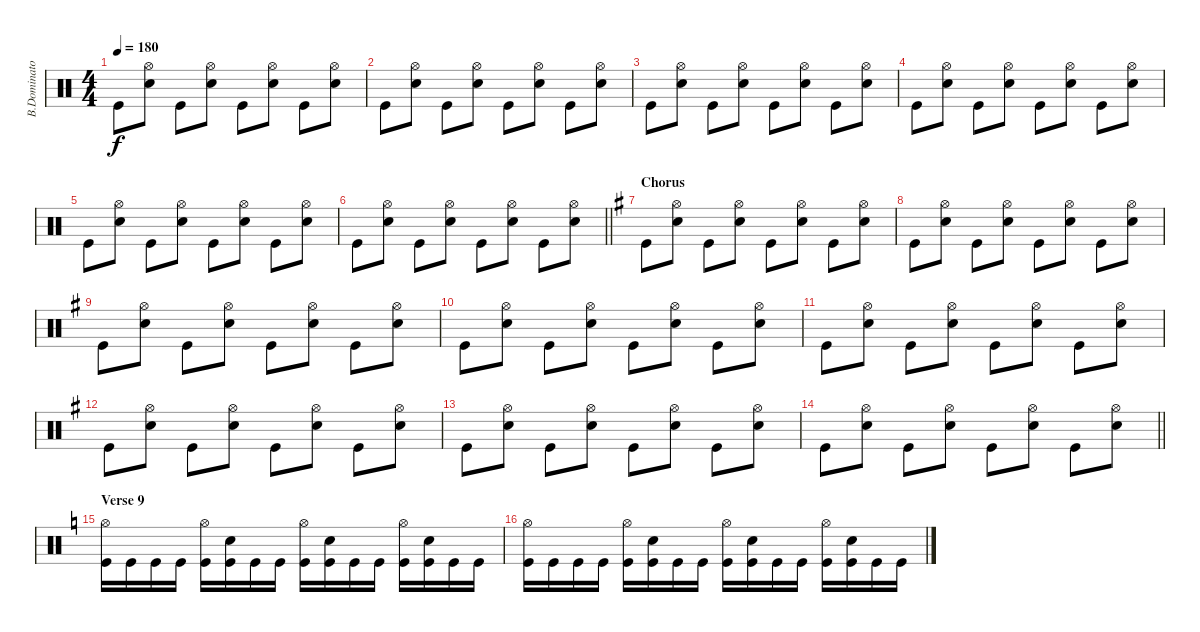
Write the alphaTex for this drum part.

\track ("B.Dominator" "B.Dominato") {instrument percussion}
\staff {score}
\articulation defaults
\ts (4 4)
\tempo 180
\clef neutral
\ks c "Kick (hit)".8{dy f}
("Hi-Hat (open)" "Snare (hit) 2").8 "Kick (hit)".8 ("Hi-Hat (open)" "Snare (hit) 2").8 "Kick (hit)".8 ("Hi-Hat (open)" "Snare (hit) 2").8 "Kick (hit)".8 ("Hi-Hat (open)" "Snare (hit) 2").8 |
"Kick (hit)".8 ("Hi-Hat (open)" "Snare (hit) 2").8 "Kick (hit)".8 ("Hi-Hat (open)" "Snare (hit) 2").8 "Kick (hit)".8 ("Hi-Hat (open)" "Snare (hit) 2").8 "Kick (hit)".8 ("Hi-Hat (open)" "Snare (hit) 2").8 |
"Kick (hit)".8 ("Hi-Hat (open)" "Snare (hit) 2").8 "Kick (hit)".8 ("Hi-Hat (open)" "Snare (hit) 2").8 "Kick (hit)".8 ("Hi-Hat (open)" "Snare (hit) 2").8 "Kick (hit)".8 ("Hi-Hat (open)" "Snare (hit) 2").8 |
"Kick (hit)".8 ("Hi-Hat (open)" "Snare (hit) 2").8 "Kick (hit)".8 ("Hi-Hat (open)" "Snare (hit) 2").8 "Kick (hit)".8 ("Hi-Hat (open)" "Snare (hit) 2").8 "Kick (hit)".8 ("Hi-Hat (open)" "Snare (hit) 2").8 |
"Kick (hit)".8 ("Hi-Hat (open)" "Snare (hit) 2").8 "Kick (hit)".8 ("Hi-Hat (open)" "Snare (hit) 2").8 "Kick (hit)".8 ("Hi-Hat (open)" "Snare (hit) 2").8 "Kick (hit)".8 ("Hi-Hat (open)" "Snare (hit) 2").8 |
\barLineRight lightlight "Kick (hit)".8
("Hi-Hat (open)" "Snare (hit) 2").8 "Kick (hit)".8 ("Hi-Hat (open)" "Snare (hit) 2").8 "Kick (hit)".8 ("Hi-Hat (open)" "Snare (hit) 2").8 "Kick (hit)".8 ("Hi-Hat (open)" "Snare (hit) 2").8 |
\section ("" "Chorus")
\ks g "Kick (hit)".8
("Hi-Hat (open)" "Snare (hit) 2").8 "Kick (hit)".8 ("Hi-Hat (open)" "Snare (hit) 2").8 "Kick (hit)".8 ("Hi-Hat (open)" "Snare (hit) 2").8 "Kick (hit)".8 ("Hi-Hat (open)" "Snare (hit) 2").8 |
"Kick (hit)".8 ("Hi-Hat (open)" "Snare (hit) 2").8 "Kick (hit)".8 ("Hi-Hat (open)" "Snare (hit) 2").8 "Kick (hit)".8 ("Hi-Hat (open)" "Snare (hit) 2").8 "Kick (hit)".8 ("Hi-Hat (open)" "Snare (hit) 2").8 |
"Kick (hit)".8 ("Hi-Hat (open)" "Snare (hit) 2").8 "Kick (hit)".8 ("Hi-Hat (open)" "Snare (hit) 2").8 "Kick (hit)".8 ("Hi-Hat (open)" "Snare (hit) 2").8 "Kick (hit)".8 ("Hi-Hat (open)" "Snare (hit) 2").8 |
"Kick (hit)".8 ("Hi-Hat (open)" "Snare (hit) 2").8 "Kick (hit)".8 ("Hi-Hat (open)" "Snare (hit) 2").8 "Kick (hit)".8 ("Hi-Hat (open)" "Snare (hit) 2").8 "Kick (hit)".8 ("Hi-Hat (open)" "Snare (hit) 2").8 |
"Kick (hit)".8 ("Hi-Hat (open)" "Snare (hit) 2").8 "Kick (hit)".8 ("Hi-Hat (open)" "Snare (hit) 2").8 "Kick (hit)".8 ("Hi-Hat (open)" "Snare (hit) 2").8 "Kick (hit)".8 ("Hi-Hat (open)" "Snare (hit) 2").8 |
"Kick (hit)".8 ("Hi-Hat (open)" "Snare (hit) 2").8 "Kick (hit)".8 ("Hi-Hat (open)" "Snare (hit) 2").8 "Kick (hit)".8 ("Hi-Hat (open)" "Snare (hit) 2").8 "Kick (hit)".8 ("Hi-Hat (open)" "Snare (hit) 2").8 |
"Kick (hit)".8 ("Hi-Hat (open)" "Snare (hit) 2").8 "Kick (hit)".8 ("Hi-Hat (open)" "Snare (hit) 2").8 "Kick (hit)".8 ("Hi-Hat (open)" "Snare (hit) 2").8 "Kick (hit)".8 ("Hi-Hat (open)" "Snare (hit) 2").8 |
\barLineRight lightlight "Kick (hit)".8
("Hi-Hat (open)" "Snare (hit) 2").8 "Kick (hit)".8 ("Hi-Hat (open)" "Snare (hit) 2").8 "Kick (hit)".8 ("Hi-Hat (open)" "Snare (hit) 2").8 "Kick (hit)".8 ("Hi-Hat (open)" "Snare (hit) 2").8 |
\section ("" "Verse 9")
\ks c
("Hi-Hat (open)" "Kick (hit)").16 "Kick (hit)".16 "Kick (hit)".16 "Kick (hit)".16 ("Hi-Hat (open)" "Kick (hit)").16 ("Snare (hit) 2" "Kick (hit)").16 "Kick (hit)".16 "Kick (hit)".16 ("Hi-Hat (open)" "Kick (hit)").16 ("Snare (hit) 2" "Kick (hit)").16 "Kick (hit)".16 "Kick (hit)".16 ("Hi-Hat (open)" "Kick (hit)").16 ("Snare (hit) 2" "Kick (hit)").16 "Kick (hit)".16 "Kick (hit)".16 |
("Hi-Hat (open)" "Kick (hit)").16 "Kick (hit)".16 "Kick (hit)".16 "Kick (hit)".16 ("Hi-Hat (open)" "Kick (hit)").16 ("Snare (hit) 2" "Kick (hit)").16 "Kick (hit)".16 "Kick (hit)".16 ("Hi-Hat (open)" "Kick (hit)").16 ("Snare (hit) 2" "Kick (hit)").16 "Kick (hit)".16 "Kick (hit)".16 ("Hi-Hat (open)" "Kick (hit)").16 ("Snare (hit) 2" "Kick (hit)").16 "Kick (hit)".16 "Kick (hit)".16
